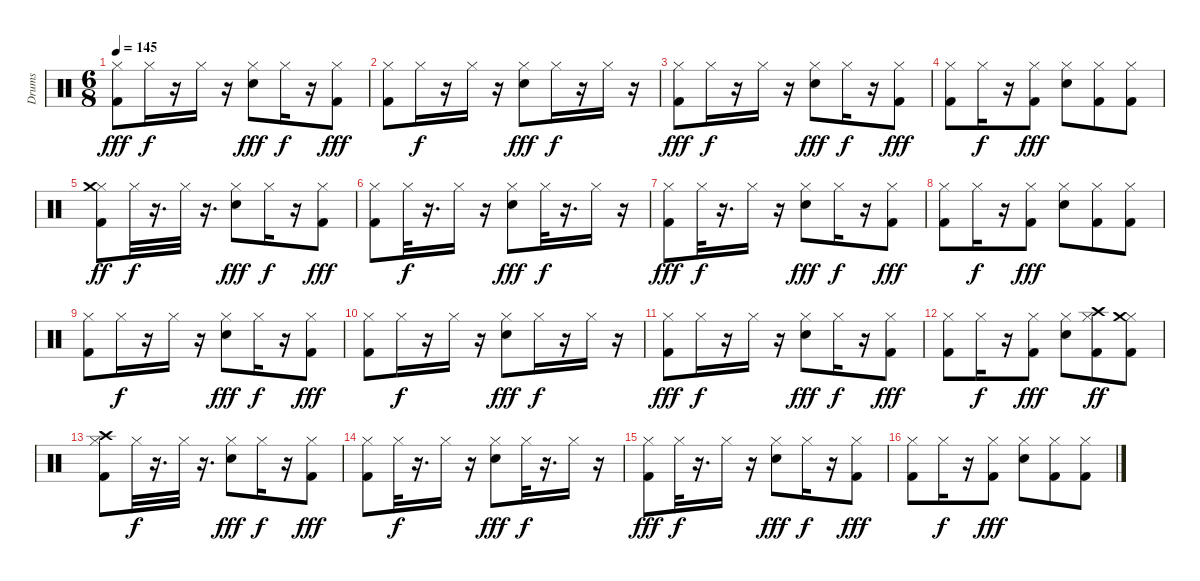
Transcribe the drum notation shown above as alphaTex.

\track ("Drums" "Drums") {instrument percussion}
\staff {score}
\articulation defaults
\ts (6 8)
\tempo 145
\clef neutral
\ks c
("Kick (hit) 2" "Hi-Hat (closed)").8{dy fff} "Hi-Hat (closed)".16{dy f} r.16 "Hi-Hat (closed)".16 r.16 ("Snare (hit) 2" "Hi-Hat (closed)").8{dy fff} "Hi-Hat (closed)".16{dy f} r.16 ("Kick (hit) 2" "Hi-Hat (closed)").8{dy fff} |
("Kick (hit) 2" "Hi-Hat (closed)").8 "Hi-Hat (closed)".16{dy f} r.16 "Hi-Hat (closed)".16 r.16 ("Snare (hit) 2" "Hi-Hat (closed)").8{dy fff} "Hi-Hat (closed)".16{dy f} r.16 "Hi-Hat (closed)".16 r.16 |
("Kick (hit) 2" "Hi-Hat (closed)").8{dy fff} "Hi-Hat (closed)".16{dy f} r.16 "Hi-Hat (closed)".16 r.16 ("Snare (hit) 2" "Hi-Hat (closed)").8{dy fff} "Hi-Hat (closed)".16{dy f} r.16 ("Kick (hit) 2" "Hi-Hat (closed)").8{dy fff} |
("Kick (hit) 2" "Hi-Hat (closed)").8 "Hi-Hat (closed)".16{dy f} r.16 ("Kick (hit) 2" "Hi-Hat (closed)").8{dy fff} ("Snare (hit) 2" "Hi-Hat (closed)").8 ("Kick (hit) 2" "Hi-Hat (closed)").8 ("Kick (hit) 2" "Hi-Hat (closed)").8 |
("Kick (hit) 2" "Hi-Hat (closed)" "Crash medium (hit)").8{dy ff} "Hi-Hat (closed)".32{dy f} r.16{d} "Hi-Hat (closed)".32 r.16{d} ("Snare (hit) 2" "Hi-Hat (closed)").8{dy fff} "Hi-Hat (closed)".16{dy f} r.16 ("Kick (hit) 2" "Hi-Hat (closed)").8{dy fff} |
("Kick (hit) 2" "Hi-Hat (closed)").8 "Hi-Hat (closed)".32{dy f} r.16{d} "Hi-Hat (closed)".16 r.16 ("Snare (hit) 2" "Hi-Hat (closed)").8{dy fff} "Hi-Hat (closed)".32{dy f} r.16{d} "Hi-Hat (closed)".16 r.16 |
("Kick (hit) 2" "Hi-Hat (closed)").8{dy fff} "Hi-Hat (closed)".32{dy f} r.16{d} "Hi-Hat (closed)".16 r.16 ("Snare (hit) 2" "Hi-Hat (closed)").8{dy fff} "Hi-Hat (closed)".16{dy f} r.16 ("Kick (hit) 2" "Hi-Hat (closed)").8{dy fff} |
("Kick (hit) 2" "Hi-Hat (closed)").8 "Hi-Hat (closed)".16{dy f} r.16 ("Kick (hit) 2" "Hi-Hat (closed)").8{dy fff} ("Snare (hit) 2" "Hi-Hat (closed)").8 ("Kick (hit) 2" "Hi-Hat (closed)").8 ("Kick (hit) 2" "Hi-Hat (closed)").8 |
("Kick (hit) 2" "Hi-Hat (closed)").8 "Hi-Hat (closed)".16{dy f} r.16 "Hi-Hat (closed)".16 r.16 ("Snare (hit) 2" "Hi-Hat (closed)").8{dy fff} "Hi-Hat (closed)".16{dy f} r.16 ("Kick (hit) 2" "Hi-Hat (closed)").8{dy fff} |
("Kick (hit) 2" "Hi-Hat (closed)").8 "Hi-Hat (closed)".16{dy f} r.16 "Hi-Hat (closed)".16 r.16 ("Snare (hit) 2" "Hi-Hat (closed)").8{dy fff} "Hi-Hat (closed)".16{dy f} r.16 "Hi-Hat (closed)".16 r.16 |
("Kick (hit) 2" "Hi-Hat (closed)").8{dy fff} "Hi-Hat (closed)".16{dy f} r.16 "Hi-Hat (closed)".16 r.16 ("Snare (hit) 2" "Hi-Hat (closed)").8{dy fff} "Hi-Hat (closed)".16{dy f} r.16 ("Kick (hit) 2" "Hi-Hat (closed)").8{dy fff} |
("Kick (hit) 2" "Hi-Hat (closed)").8 "Hi-Hat (closed)".16{dy f} r.16 ("Kick (hit) 2" "Hi-Hat (closed)").8{dy fff} ("Snare (hit) 2" "Hi-Hat (closed)").8 ("Kick (hit) 2" "Hi-Hat (closed)" "Crash high (hit)").8{dy ff} ("Kick (hit) 2" "Hi-Hat (closed)" "Crash medium (hit)").8 |
("Kick (hit) 2" "Hi-Hat (closed)" "Crash high (hit)").8 "Hi-Hat (closed)".32{dy f} r.16{d} "Hi-Hat (closed)".32 r.16{d} ("Snare (hit) 2" "Hi-Hat (closed)").8{dy fff} "Hi-Hat (closed)".16{dy f} r.16 ("Kick (hit) 2" "Hi-Hat (closed)").8{dy fff} |
("Kick (hit) 2" "Hi-Hat (closed)").8 "Hi-Hat (closed)".32{dy f} r.16{d} "Hi-Hat (closed)".16 r.16 ("Snare (hit) 2" "Hi-Hat (closed)").8{dy fff} "Hi-Hat (closed)".32{dy f} r.16{d} "Hi-Hat (closed)".16 r.16 |
("Kick (hit) 2" "Hi-Hat (closed)").8{dy fff} "Hi-Hat (closed)".32{dy f} r.16{d} "Hi-Hat (closed)".16 r.16 ("Snare (hit) 2" "Hi-Hat (closed)").8{dy fff} "Hi-Hat (closed)".16{dy f} r.16 ("Kick (hit) 2" "Hi-Hat (closed)").8{dy fff} |
("Kick (hit) 2" "Hi-Hat (closed)").8 "Hi-Hat (closed)".16{dy f} r.16 ("Kick (hit) 2" "Hi-Hat (closed)").8{dy fff} ("Snare (hit) 2" "Hi-Hat (closed)").8 ("Kick (hit) 2" "Hi-Hat (closed)").8 ("Kick (hit) 2" "Hi-Hat (closed)").8
